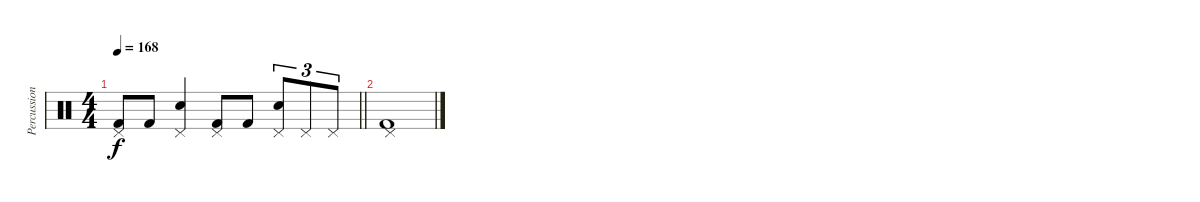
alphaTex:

\track ("Percussion" "Percussion") {instrument percussion}
\staff {score}
\articulation defaults
\ts (4 4)
\tempo 168
\clef neutral
\barLineRight lightlight
\ks c
("Pedal Hi-Hat (hit)" "Kick (hit) 2").8{dy f} "Kick (hit) 2".8 ("Pedal Hi-Hat (hit)" "Electric Snare (hit)").4 ("Pedal Hi-Hat (hit)" "Kick (hit) 2").8 "Kick (hit) 2".8 ("Pedal Hi-Hat (hit)" "Electric Snare (hit)").8{tu (3 2)} "Pedal Hi-Hat (hit)".8{tu (3 2)} "Pedal Hi-Hat (hit)".8{tu (3 2)} |
("Pedal Hi-Hat (hit)" "Kick (hit) 2").1
